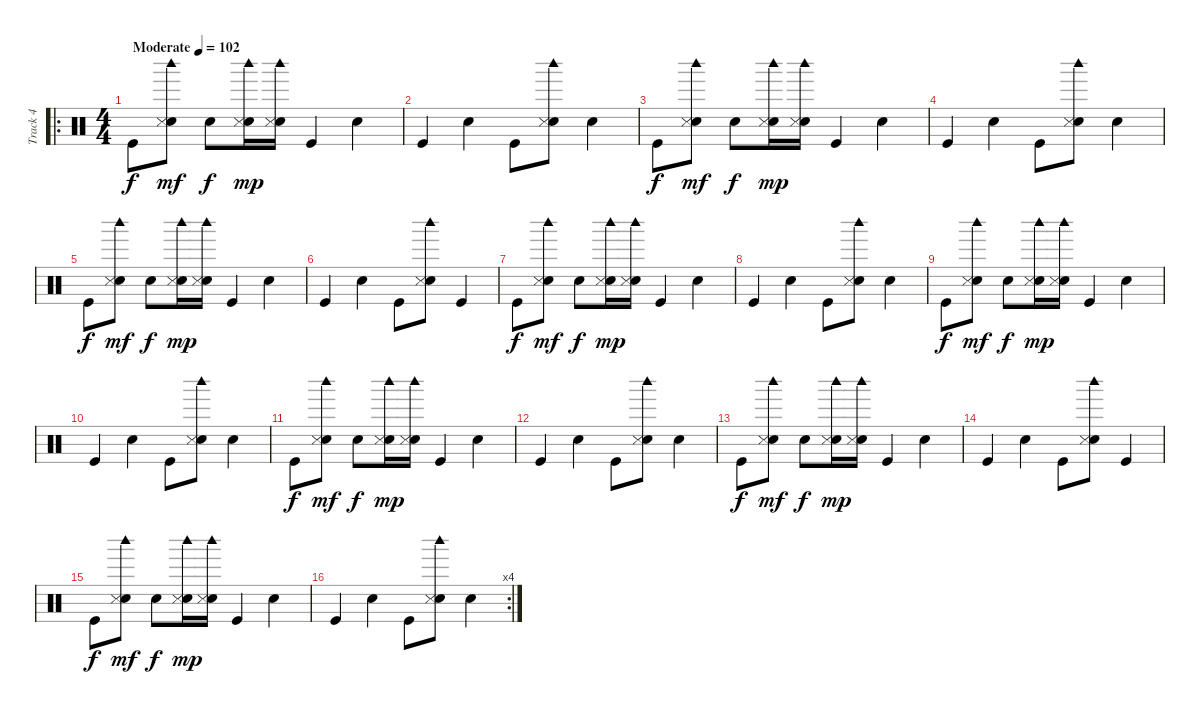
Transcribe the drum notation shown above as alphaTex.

\track ("Track 4" "Track 4") {instrument percussion}
\staff {score}
\articulation defaults
\ro
\ts (4 4)
\tempo (102 "Moderate")
\clef neutral
\ks c "Kick (hit)".8{dy f}
("Hand Clap (hit)" "Snare (side stick) 3" "Woodblock high (hit)").8{dy mf} "Electric Snare (hit)".8{dy f} ("Hand Clap (hit)" "Snare (side stick) 3" "Woodblock high (hit)").16{dy mp} ("Hand Clap (hit)" "Snare (side stick) 3" "Woodblock high (hit)").16 "Kick (hit)".4 "Electric Snare (hit)".4 |
"Kick (hit)".4 "Electric Snare (hit)".4 "Kick (hit)".8 ("Hand Clap (hit)" "Snare (side stick) 3" "Woodblock high (hit)").8 "Electric Snare (hit)".4 |
"Kick (hit)".8{dy f} ("Hand Clap (hit)" "Snare (side stick) 3" "Woodblock high (hit)").8{dy mf} "Electric Snare (hit)".8{dy f} ("Hand Clap (hit)" "Snare (side stick) 3" "Woodblock high (hit)").16{dy mp} ("Hand Clap (hit)" "Snare (side stick) 3" "Woodblock high (hit)").16 "Kick (hit)".4 "Electric Snare (hit)".4 |
"Kick (hit)".4 "Electric Snare (hit)".4 "Kick (hit)".8 ("Hand Clap (hit)" "Snare (side stick) 3" "Woodblock high (hit)").8 "Electric Snare (hit)".4 |
"Kick (hit)".8{dy f} ("Hand Clap (hit)" "Snare (side stick) 3" "Woodblock high (hit)").8{dy mf} "Electric Snare (hit)".8{dy f} ("Hand Clap (hit)" "Snare (side stick) 3" "Woodblock high (hit)").16{dy mp} ("Hand Clap (hit)" "Snare (side stick) 3" "Woodblock high (hit)").16 "Kick (hit)".4 "Electric Snare (hit)".4 |
"Kick (hit)".4 "Electric Snare (hit)".4 "Kick (hit)".8 ("Hand Clap (hit)" "Snare (side stick) 3" "Woodblock high (hit)").8 "Kick (hit)".4 |
"Kick (hit)".8{dy f} ("Hand Clap (hit)" "Snare (side stick) 3" "Woodblock high (hit)").8{dy mf} "Electric Snare (hit)".8{dy f} ("Hand Clap (hit)" "Snare (side stick) 3" "Woodblock high (hit)").16{dy mp} ("Hand Clap (hit)" "Snare (side stick) 3" "Woodblock high (hit)").16 "Kick (hit)".4 "Electric Snare (hit)".4 |
"Kick (hit)".4 "Electric Snare (hit)".4 "Kick (hit)".8 ("Hand Clap (hit)" "Snare (side stick) 3" "Woodblock high (hit)").8 "Electric Snare (hit)".4 |
"Kick (hit)".8{dy f} ("Hand Clap (hit)" "Snare (side stick) 3" "Woodblock high (hit)").8{dy mf} "Electric Snare (hit)".8{dy f} ("Hand Clap (hit)" "Snare (side stick) 3" "Woodblock high (hit)").16{dy mp} ("Hand Clap (hit)" "Snare (side stick) 3" "Woodblock high (hit)").16 "Kick (hit)".4 "Electric Snare (hit)".4 |
"Kick (hit)".4 "Electric Snare (hit)".4 "Kick (hit)".8 ("Hand Clap (hit)" "Snare (side stick) 3" "Woodblock high (hit)").8 "Electric Snare (hit)".4 |
"Kick (hit)".8{dy f} ("Hand Clap (hit)" "Snare (side stick) 3" "Woodblock high (hit)").8{dy mf} "Electric Snare (hit)".8{dy f} ("Hand Clap (hit)" "Snare (side stick) 3" "Woodblock high (hit)").16{dy mp} ("Hand Clap (hit)" "Snare (side stick) 3" "Woodblock high (hit)").16 "Kick (hit)".4 "Electric Snare (hit)".4 |
"Kick (hit)".4 "Electric Snare (hit)".4 "Kick (hit)".8 ("Hand Clap (hit)" "Snare (side stick) 3" "Woodblock high (hit)").8 "Electric Snare (hit)".4 |
"Kick (hit)".8{dy f} ("Hand Clap (hit)" "Snare (side stick) 3" "Woodblock high (hit)").8{dy mf} "Electric Snare (hit)".8{dy f} ("Hand Clap (hit)" "Snare (side stick) 3" "Woodblock high (hit)").16{dy mp} ("Hand Clap (hit)" "Snare (side stick) 3" "Woodblock high (hit)").16 "Kick (hit)".4 "Electric Snare (hit)".4 |
"Kick (hit)".4 "Electric Snare (hit)".4 "Kick (hit)".8 ("Hand Clap (hit)" "Snare (side stick) 3" "Woodblock high (hit)").8 "Kick (hit)".4 |
"Kick (hit)".8{dy f} ("Hand Clap (hit)" "Snare (side stick) 3" "Woodblock high (hit)").8{dy mf} "Electric Snare (hit)".8{dy f} ("Hand Clap (hit)" "Snare (side stick) 3" "Woodblock high (hit)").16{dy mp} ("Hand Clap (hit)" "Snare (side stick) 3" "Woodblock high (hit)").16 "Kick (hit)".4 "Electric Snare (hit)".4 |
\rc 4 "Kick (hit)".4 "Electric Snare (hit)".4 "Kick (hit)".8
("Hand Clap (hit)" "Snare (side stick) 3" "Woodblock high (hit)").8 "Electric Snare (hit)".4
